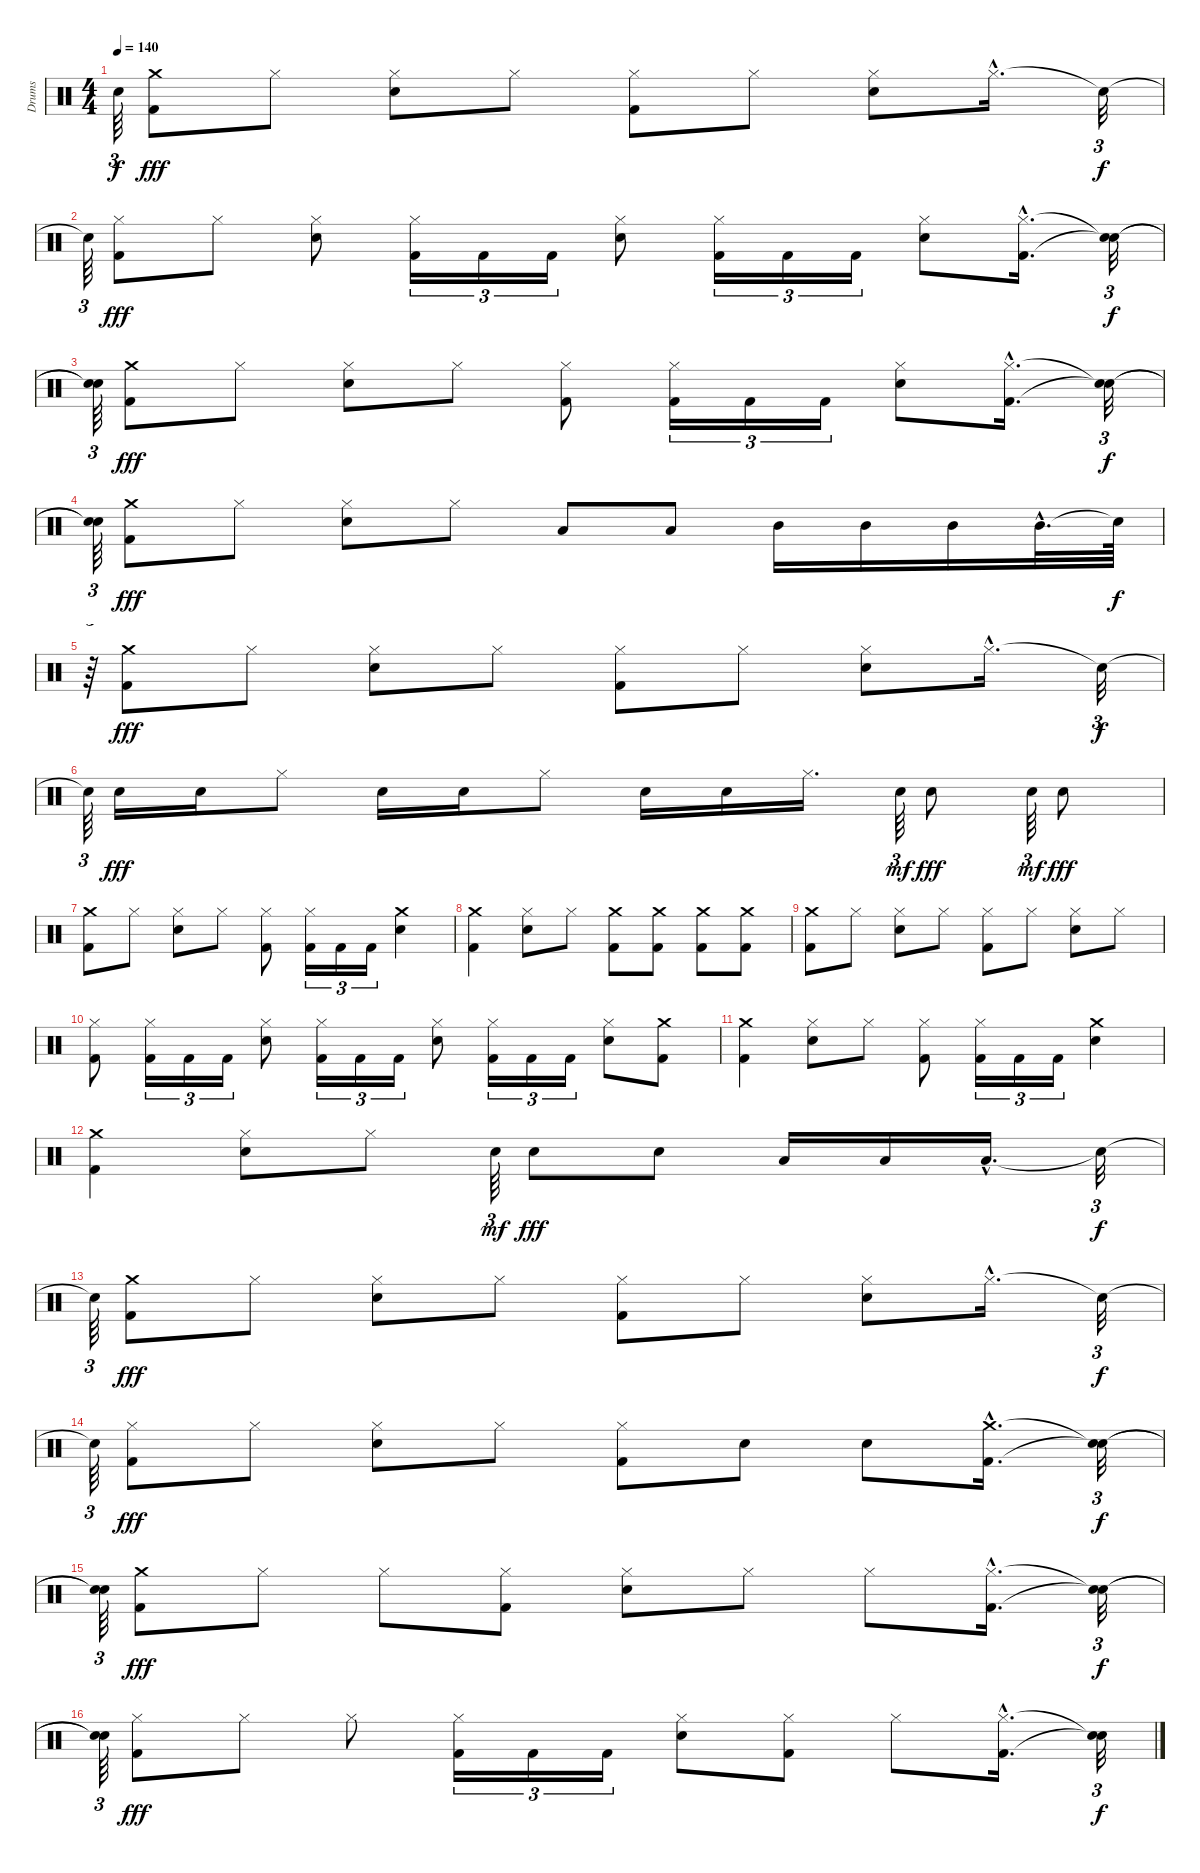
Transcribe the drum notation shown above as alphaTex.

\track ("Drums" "Drums") {instrument percussion}
\staff {score}
\articulation defaults
\ts (4 4)
\tempo 140
\clef neutral
\ks c "Snare (hit)"{t}.64{tu (3 2) dy f}
("Crash medium (hit)" "Kick (hit) 2").8{dy fff} "Hi-Hat (closed)".8 ("Snare (hit) 2" "Hi-Hat (closed)").8 "Hi-Hat (closed)".8 ("Hi-Hat (closed)" "Kick (hit) 2").8 "Hi-Hat (closed)".8 ("Snare (hit) 2" "Hi-Hat (closed)").8 "Hi-Hat (closed)"{hac}.16{d} "Snare (hit)"{t}.32{tu (3 2) dy f} |
"Snare (hit)"{t}.64{tu (3 2)} ("Kick (hit) 2" "Hi-Hat (closed)").8{dy fff} "Hi-Hat (closed)".8 ("Snare (hit) 2" "Hi-Hat (closed)").8 ("Kick (hit) 2" "Hi-Hat (closed)").16{tu (3 2)} "Kick (hit) 2".16{tu (3 2)} "Kick (hit) 2".16{tu (3 2)} ("Snare (hit) 2" "Hi-Hat (closed)").8 ("Kick (hit) 2" "Hi-Hat (closed)").16{tu (3 2)} "Kick (hit) 2".16{tu (3 2)} "Kick (hit) 2".16{tu (3 2)} ("Snare (hit) 2" "Hi-Hat (closed)").8 ("Kick (hit) 2"{hac} "Hi-Hat (closed)"{hac}).16{d} ("Snare (hit)"{t} "Snare (hit)"{t}).32{tu (3 2) dy f} |
("Snare (hit)"{t} "Snare (hit)"{t}).64{tu (3 2)} ("Crash medium (hit)" "Kick (hit) 2").8{dy fff} "Hi-Hat (closed)".8 ("Snare (hit) 2" "Hi-Hat (closed)").8 "Hi-Hat (closed)".8 ("Hi-Hat (closed)" "Kick (hit) 2").8 ("Hi-Hat (closed)" "Kick (hit) 2").16{tu (3 2)} "Kick (hit) 2".16{tu (3 2)} "Kick (hit) 2".16{tu (3 2)} ("Snare (hit) 2" "Hi-Hat (closed)").8 ("Hi-Hat (closed)"{hac} "Kick (hit) 2"{hac}).16{d} ("Snare (hit)"{t} "Snare (hit)"{t}).32{tu (3 2) dy f} |
("Snare (hit)"{t} "Snare (hit)"{t}).64{tu (3 2)} ("Kick (hit) 2" "Crash medium (hit)").8{dy fff} "Hi-Hat (closed)".8 ("Snare (hit) 2" "Hi-Hat (closed)").8 "Hi-Hat (closed)".8 "Low Tom (hit)".8 "Low Tom (hit)".8 "Mid Tom (hit)".16 "Mid Tom (hit)".16 "Mid Tom (hit)".16 "Mid Tom (hit)"{hac}.32{d} "Snare (hit)"{t}.64{dy f} |
r.64{tu (3 2)} ("Crash medium (hit)" "Kick (hit) 2").8{dy fff} "Hi-Hat (closed)".8 ("Snare (hit) 2" "Hi-Hat (closed)").8 "Hi-Hat (closed)".8 ("Hi-Hat (closed)" "Kick (hit) 2").8 "Hi-Hat (closed)".8 ("Snare (hit) 2" "Hi-Hat (closed)").8 "Hi-Hat (closed)"{hac}.16{d} "Snare (hit)"{t}.32{tu (3 2) dy f} |
"Snare (hit)"{t}.64{tu (3 2)} "Snare (hit) 2".16{dy fff} "Snare (hit) 2".16 "Hi-Hat (closed)".8 "Snare (hit) 2".16 "Snare (hit) 2".16 "Hi-Hat (closed)".8 "Snare (hit) 2".16 "Snare (hit) 2".16 "Hi-Hat (closed)".16{d} "Snare (hit) 2".64{tu (3 2) dy mf} "Snare (hit) 2".8{dy fff} "Snare (hit) 2".64{tu (3 2) dy mf} "Snare (hit) 2".8{dy fff} |
("Crash medium (hit)" "Kick (hit) 2").8 "Hi-Hat (closed)".8 ("Snare (hit) 2" "Hi-Hat (closed)").8 "Hi-Hat (closed)".8 ("Hi-Hat (closed)" "Kick (hit) 2").8 ("Hi-Hat (closed)" "Kick (hit) 2").16{tu (3 2)} "Kick (hit) 2".16{tu (3 2)} "Kick (hit) 2".16{tu (3 2)} ("Snare (hit) 2" "Crash medium (hit)").4 |
("Kick (hit) 2" "Crash medium (hit)").4 ("Snare (hit) 2" "Hi-Hat (closed)").8 "Hi-Hat (closed)".8 ("Kick (hit) 2" "Crash medium (hit)").8 ("Kick (hit) 2" "Crash medium (hit)").8 ("Kick (hit) 2" "Crash medium (hit)").8 ("Kick (hit) 2" "Crash medium (hit)").8 |
("Crash medium (hit)" "Kick (hit) 2").8 "Hi-Hat (closed)".8 ("Snare (hit) 2" "Hi-Hat (closed)").8 "Hi-Hat (closed)".8 ("Hi-Hat (closed)" "Kick (hit) 2").8 "Hi-Hat (closed)".8 ("Snare (hit) 2" "Hi-Hat (closed)").8 "Hi-Hat (closed)".8 |
("Kick (hit) 2" "Hi-Hat (closed)").8 ("Kick (hit) 2" "Hi-Hat (closed)").16{tu (3 2)} "Kick (hit) 2".16{tu (3 2)} "Kick (hit) 2".16{tu (3 2)} ("Snare (hit) 2" "Hi-Hat (closed)").8 ("Kick (hit) 2" "Hi-Hat (closed)").16{tu (3 2)} "Kick (hit) 2".16{tu (3 2)} "Kick (hit) 2".16{tu (3 2)} ("Snare (hit) 2" "Hi-Hat (closed)").8 ("Kick (hit) 2" "Hi-Hat (closed)").16{tu (3 2)} "Kick (hit) 2".16{tu (3 2)} "Kick (hit) 2".16{tu (3 2)} ("Snare (hit) 2" "Hi-Hat (closed)").8 ("Crash medium (hit)" "Kick (hit) 2").8 |
("Kick (hit) 2" "Crash medium (hit)").4 ("Snare (hit) 2" "Hi-Hat (closed)").8 "Hi-Hat (closed)".8 ("Hi-Hat (closed)" "Kick (hit) 2").8 ("Hi-Hat (closed)" "Kick (hit) 2").16{tu (3 2)} "Kick (hit) 2".16{tu (3 2)} "Kick (hit) 2".16{tu (3 2)} ("Snare (hit) 2" "Crash medium (hit)").4 |
("Kick (hit) 2" "Crash medium (hit)").4 ("Hi-Hat (closed)" "Snare (hit) 2").8 "Hi-Hat (closed)".8 "Snare (hit) 2".64{tu (3 2) dy mf} "Snare (hit) 2".8{dy fff} "Snare (hit) 2".8 "Low Tom (hit)".16 "Low Tom (hit)".16 "Low Tom (hit)"{hac}.16{d} "Snare (hit)"{t}.32{tu (3 2) dy f} |
"Snare (hit)"{t}.64{tu (3 2)} ("Kick (hit) 2" "Crash medium (hit)").8{dy fff} "Hi-Hat (closed)".8 ("Snare (hit) 2" "Hi-Hat (closed)").8 "Hi-Hat (closed)".8 ("Kick (hit) 2" "Hi-Hat (closed)").8 "Hi-Hat (closed)".8 ("Snare (hit) 2" "Hi-Hat (closed)").8 "Hi-Hat (closed)"{hac}.16{d} "Snare (hit)"{t}.32{tu (3 2) dy f} |
"Snare (hit)"{t}.64{tu (3 2)} ("Hi-Hat (closed)" "Kick (hit) 2").8{dy fff} "Hi-Hat (closed)".8 ("Snare (hit) 2" "Hi-Hat (closed)").8 "Hi-Hat (closed)".8 ("Hi-Hat (closed)" "Kick (hit) 2").8 "Snare (hit) 2".8 "Snare (hit) 2".8 ("Crash medium (hit)"{hac} "Kick (hit) 2"{hac}).16{d} ("Snare (hit)"{t} "Snare (hit)"{t}).32{tu (3 2) dy f} |
("Snare (hit)"{t} "Snare (hit)"{t}).64{tu (3 2)} ("Kick (hit) 2" "Crash medium (hit)").8{dy fff} "Hi-Hat (closed)".8 "Hi-Hat (closed)".8 ("Kick (hit) 2" "Hi-Hat (closed)").8 ("Hi-Hat (closed)" "Snare (hit) 2").8 "Hi-Hat (closed)".8 "Hi-Hat (closed)".8 ("Kick (hit) 2"{hac} "Hi-Hat (closed)"{hac}).16{d} ("Snare (hit)"{t} "Snare (hit)"{t}).32{tu (3 2) dy f} |
("Snare (hit)"{t} "Snare (hit)"{t}).64{tu (3 2)} ("Hi-Hat (closed)" "Kick (hit) 2").8{dy fff} "Hi-Hat (closed)".8 "Hi-Hat (closed)".8 ("Hi-Hat (closed)" "Kick (hit) 2").16{tu (3 2)} "Kick (hit) 2".16{tu (3 2)} "Kick (hit) 2".16{tu (3 2)} ("Snare (hit) 2" "Hi-Hat (closed)").8 ("Hi-Hat (closed)" "Kick (hit) 2").8 "Hi-Hat (closed)".8 ("Hi-Hat (closed)"{hac} "Kick (hit) 2"{hac}).16{d} ("Snare (hit)"{t} "Snare (hit)"{t}).32{tu (3 2) dy f}
